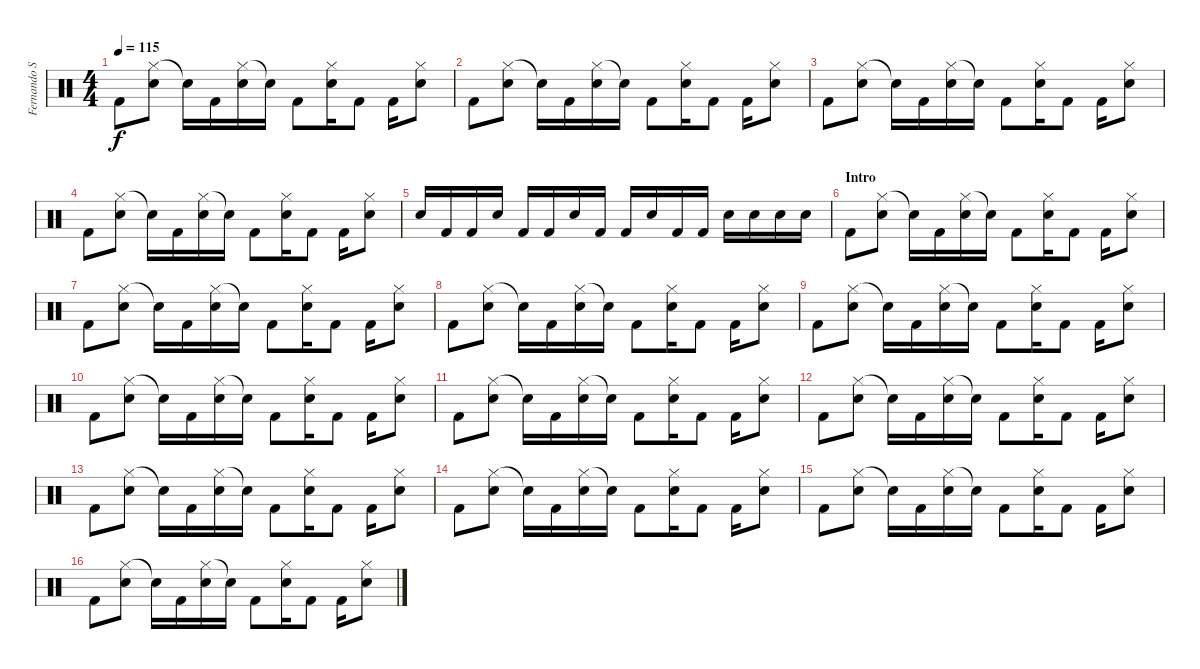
\track ("Fernando Scarcella" "Fernando S") {instrument percussion}
\staff {score}
\articulation defaults
\ts (4 4)
\tempo 115
\clef neutral
\ks c "Kick (hit) 2".8{dy f}
("Hi-Hat (closed)" "Snare (hit) 2").8 "Snare (hit)"{t}.16 "Kick (hit) 2".16 ("Hi-Hat (closed)" "Snare (hit) 2").16 "Snare (hit)"{t}.16 "Kick (hit) 2".8 ("Hi-Hat (closed)" "Snare (hit) 2").16 "Kick (hit) 2".8 "Kick (hit) 2".16 ("Hi-Hat (closed)" "Snare (hit) 2").8 |
"Kick (hit) 2".8 ("Hi-Hat (closed)" "Snare (hit) 2").8 "Snare (hit)"{t}.16 "Kick (hit) 2".16 ("Hi-Hat (closed)" "Snare (hit) 2").16 "Snare (hit)"{t}.16 "Kick (hit) 2".8 ("Hi-Hat (closed)" "Snare (hit) 2").16 "Kick (hit) 2".8 "Kick (hit) 2".16 ("Hi-Hat (closed)" "Snare (hit) 2").8 |
"Kick (hit) 2".8 ("Hi-Hat (closed)" "Snare (hit) 2").8 "Snare (hit)"{t}.16 "Kick (hit) 2".16 ("Hi-Hat (closed)" "Snare (hit) 2").16 "Snare (hit)"{t}.16 "Kick (hit) 2".8 ("Hi-Hat (closed)" "Snare (hit) 2").16 "Kick (hit) 2".8 "Kick (hit) 2".16 ("Hi-Hat (closed)" "Snare (hit) 2").8 |
"Kick (hit) 2".8 ("Hi-Hat (closed)" "Snare (hit) 2").8 "Snare (hit)"{t}.16 "Kick (hit) 2".16 ("Hi-Hat (closed)" "Snare (hit) 2").16 "Snare (hit)"{t}.16 "Kick (hit) 2".8 ("Hi-Hat (closed)" "Snare (hit) 2").16 "Kick (hit) 2".8 "Kick (hit) 2".16 ("Hi-Hat (closed)" "Snare (hit) 2").8 |
"Snare (hit) 2".16 "Kick (hit) 2".16 "Kick (hit) 2".16 "Snare (hit) 2".16 "Kick (hit) 2".16 "Kick (hit) 2".16 "Snare (hit) 2".16 "Kick (hit) 2".16 "Kick (hit) 2".16 "Snare (hit) 2".16 "Kick (hit) 2".16 "Kick (hit) 2".16 "Snare (hit) 2".16 "Snare (hit) 2".16 "Snare (hit) 2".16 "Snare (hit) 2".16 |
\section ("" "Intro")
"Kick (hit) 2".8 ("Hi-Hat (closed)" "Snare (hit) 2").8 "Snare (hit)"{t}.16 "Kick (hit) 2".16 ("Hi-Hat (closed)" "Snare (hit) 2").16 "Snare (hit)"{t}.16 "Kick (hit) 2".8 ("Hi-Hat (closed)" "Snare (hit) 2").16 "Kick (hit) 2".8 "Kick (hit) 2".16 ("Hi-Hat (closed)" "Snare (hit) 2").8 |
"Kick (hit) 2".8 ("Hi-Hat (closed)" "Snare (hit) 2").8 "Snare (hit)"{t}.16 "Kick (hit) 2".16 ("Hi-Hat (closed)" "Snare (hit) 2").16 "Snare (hit)"{t}.16 "Kick (hit) 2".8 ("Hi-Hat (closed)" "Snare (hit) 2").16 "Kick (hit) 2".8 "Kick (hit) 2".16 ("Hi-Hat (closed)" "Snare (hit) 2").8 |
"Kick (hit) 2".8 ("Hi-Hat (closed)" "Snare (hit) 2").8 "Snare (hit)"{t}.16 "Kick (hit) 2".16 ("Hi-Hat (closed)" "Snare (hit) 2").16 "Snare (hit)"{t}.16 "Kick (hit) 2".8 ("Hi-Hat (closed)" "Snare (hit) 2").16 "Kick (hit) 2".8 "Kick (hit) 2".16 ("Hi-Hat (closed)" "Snare (hit) 2").8 |
"Kick (hit) 2".8 ("Hi-Hat (closed)" "Snare (hit) 2").8 "Snare (hit)"{t}.16 "Kick (hit) 2".16 ("Hi-Hat (closed)" "Snare (hit) 2").16 "Snare (hit)"{t}.16 "Kick (hit) 2".8 ("Hi-Hat (closed)" "Snare (hit) 2").16 "Kick (hit) 2".8 "Kick (hit) 2".16 ("Hi-Hat (closed)" "Snare (hit) 2").8 |
"Kick (hit) 2".8 ("Hi-Hat (closed)" "Snare (hit) 2").8 "Snare (hit)"{t}.16 "Kick (hit) 2".16 ("Hi-Hat (closed)" "Snare (hit) 2").16 "Snare (hit)"{t}.16 "Kick (hit) 2".8 ("Hi-Hat (closed)" "Snare (hit) 2").16 "Kick (hit) 2".8 "Kick (hit) 2".16 ("Hi-Hat (closed)" "Snare (hit) 2").8 |
"Kick (hit) 2".8 ("Hi-Hat (closed)" "Snare (hit) 2").8 "Snare (hit)"{t}.16 "Kick (hit) 2".16 ("Hi-Hat (closed)" "Snare (hit) 2").16 "Snare (hit)"{t}.16 "Kick (hit) 2".8 ("Hi-Hat (closed)" "Snare (hit) 2").16 "Kick (hit) 2".8 "Kick (hit) 2".16 ("Hi-Hat (closed)" "Snare (hit) 2").8 |
"Kick (hit) 2".8 ("Hi-Hat (closed)" "Snare (hit) 2").8 "Snare (hit)"{t}.16 "Kick (hit) 2".16 ("Hi-Hat (closed)" "Snare (hit) 2").16 "Snare (hit)"{t}.16 "Kick (hit) 2".8 ("Hi-Hat (closed)" "Snare (hit) 2").16 "Kick (hit) 2".8 "Kick (hit) 2".16 ("Hi-Hat (closed)" "Snare (hit) 2").8 |
"Kick (hit) 2".8 ("Hi-Hat (closed)" "Snare (hit) 2").8 "Snare (hit)"{t}.16 "Kick (hit) 2".16 ("Hi-Hat (closed)" "Snare (hit) 2").16 "Snare (hit)"{t}.16 "Kick (hit) 2".8 ("Hi-Hat (closed)" "Snare (hit) 2").16 "Kick (hit) 2".8 "Kick (hit) 2".16 ("Hi-Hat (closed)" "Snare (hit) 2").8 |
"Kick (hit) 2".8 ("Hi-Hat (closed)" "Snare (hit) 2").8 "Snare (hit)"{t}.16 "Kick (hit) 2".16 ("Hi-Hat (closed)" "Snare (hit) 2").16 "Snare (hit)"{t}.16 "Kick (hit) 2".8 ("Hi-Hat (closed)" "Snare (hit) 2").16 "Kick (hit) 2".8 "Kick (hit) 2".16 ("Hi-Hat (closed)" "Snare (hit) 2").8 |
"Kick (hit) 2".8 ("Hi-Hat (closed)" "Snare (hit) 2").8 "Snare (hit)"{t}.16 "Kick (hit) 2".16 ("Hi-Hat (closed)" "Snare (hit) 2").16 "Snare (hit)"{t}.16 "Kick (hit) 2".8 ("Hi-Hat (closed)" "Snare (hit) 2").16 "Kick (hit) 2".8 "Kick (hit) 2".16 ("Hi-Hat (closed)" "Snare (hit) 2").8 |
"Kick (hit) 2".8 ("Hi-Hat (closed)" "Snare (hit) 2").8 "Snare (hit)"{t}.16 "Kick (hit) 2".16 ("Hi-Hat (closed)" "Snare (hit) 2").16 "Snare (hit)"{t}.16 "Kick (hit) 2".8 ("Hi-Hat (closed)" "Snare (hit) 2").16 "Kick (hit) 2".8 "Kick (hit) 2".16 ("Hi-Hat (closed)" "Snare (hit) 2").8
